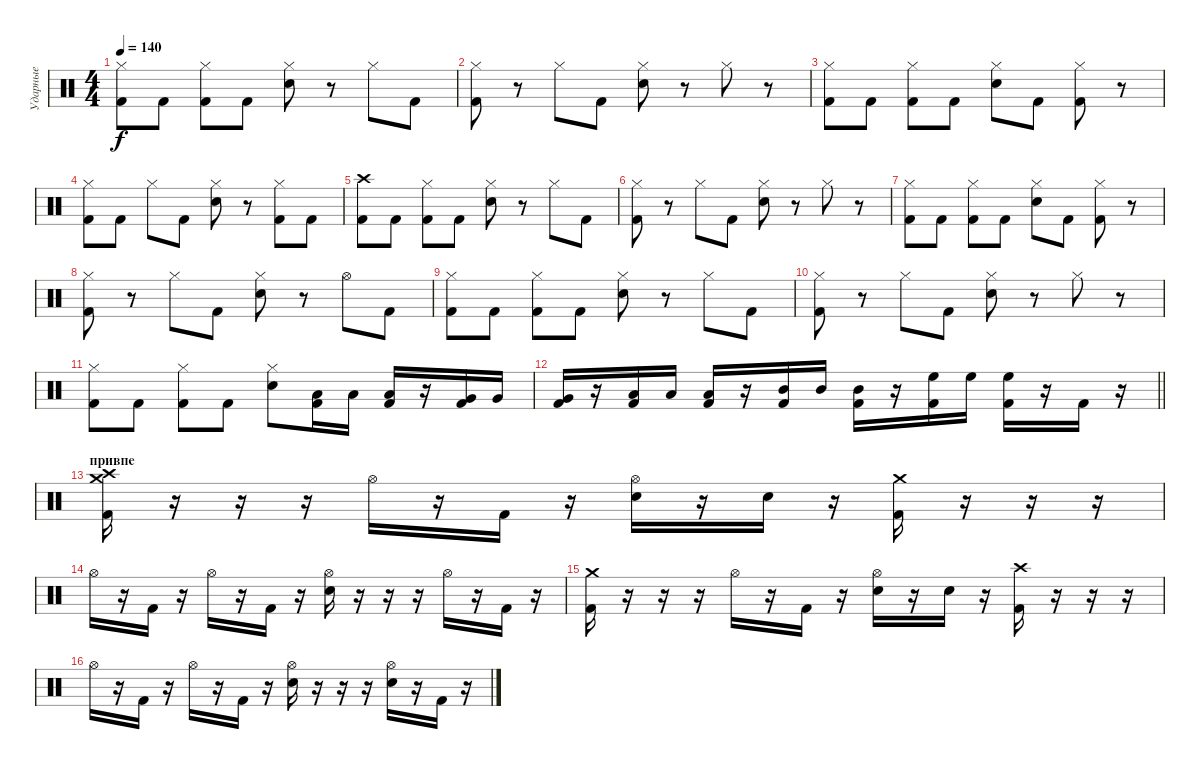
\track ("Ударные" "Ударные") {instrument percussion}
\staff {score}
\articulation defaults
\ts (4 4)
\tempo 140
\clef neutral
\ks c
("Hi-Hat (closed)" "Kick (hit) 2").8{dy f} "Kick (hit) 2".8 ("Hi-Hat (closed)" "Kick (hit) 2").8 "Kick (hit) 2".8 ("Hi-Hat (closed)" "Snare (hit) 2").8 r.8 "Hi-Hat (closed)".8 "Kick (hit) 2".8 |
("Hi-Hat (closed)" "Kick (hit) 2").8 r.8 "Hi-Hat (closed)".8 "Kick (hit) 2".8 ("Hi-Hat (closed)" "Snare (hit) 2").8 r.8 "Hi-Hat (closed)".8 r.8 |
("Hi-Hat (closed)" "Kick (hit) 2").8 "Kick (hit) 2".8 ("Hi-Hat (closed)" "Kick (hit) 2").8 "Kick (hit) 2".8 ("Hi-Hat (closed)" "Snare (hit) 2").8 "Kick (hit) 2".8 ("Hi-Hat (closed)" "Kick (hit) 2").8 r.8 |
("Hi-Hat (closed)" "Kick (hit) 2").8 "Kick (hit) 2".8 "Hi-Hat (closed)".8 "Kick (hit) 2".8 ("Hi-Hat (closed)" "Snare (hit) 2").8 r.8 ("Hi-Hat (closed)" "Kick (hit) 2").8 "Kick (hit) 2".8 |
("Crash high (hit)" "Kick (hit) 2").8 "Kick (hit) 2".8 ("Hi-Hat (closed)" "Kick (hit) 2").8 "Kick (hit) 2".8 ("Hi-Hat (closed)" "Snare (hit) 2").8 r.8 "Hi-Hat (closed)".8 "Kick (hit) 2".8 |
("Hi-Hat (closed)" "Kick (hit) 2").8 r.8 "Hi-Hat (closed)".8 "Kick (hit) 2".8 ("Hi-Hat (closed)" "Snare (hit) 2").8 r.8 "Hi-Hat (closed)".8 r.8 |
("Hi-Hat (closed)" "Kick (hit) 2").8 "Kick (hit) 2".8 ("Hi-Hat (closed)" "Kick (hit) 2").8 "Kick (hit) 2".8 ("Hi-Hat (closed)" "Snare (hit) 2").8 "Kick (hit) 2".8 ("Hi-Hat (closed)" "Kick (hit) 2").8 r.8 |
("Hi-Hat (closed)" "Kick (hit) 2").8 r.8 "Hi-Hat (closed)".8 "Kick (hit) 2".8 ("Hi-Hat (closed)" "Snare (hit) 2").8 r.8 "Hi-Hat (open)".8 "Kick (hit) 2".8 |
("Hi-Hat (closed)" "Kick (hit) 2").8 "Kick (hit) 2".8 ("Hi-Hat (closed)" "Kick (hit) 2").8 "Kick (hit) 2".8 ("Hi-Hat (closed)" "Snare (hit) 2").8 r.8 "Hi-Hat (closed)".8 "Kick (hit) 2".8 |
("Hi-Hat (closed)" "Kick (hit) 2").8 r.8 "Hi-Hat (closed)".8 "Kick (hit) 2".8 ("Hi-Hat (closed)" "Snare (hit) 2").8 r.8 "Hi-Hat (closed)".8 r.8 |
("Hi-Hat (closed)" "Kick (hit) 2").8 "Kick (hit) 2".8 ("Hi-Hat (closed)" "Kick (hit) 2").8 "Kick (hit) 2".8 ("Hi-Hat (closed)" "Snare (hit) 2").8 ("Low Floor Tom (hit)" "Kick (hit) 2").16 "Low Floor Tom (hit)".16 ("Low Floor Tom (hit)" "Kick (hit) 2").16 r.16 ("Very Low Tom (hit)" "Kick (hit) 2").16 "Very Low Tom (hit)".16 |
\barLineRight lightlight
("Very Low Tom (hit)" "Kick (hit) 2").16 r.16 ("Low Tom (hit)" "Kick (hit) 2").16 "Low Tom (hit)".16 ("Low Tom (hit)" "Kick (hit) 2").16 r.16 ("Mid Tom (hit)" "Kick (hit) 2").16 "Mid Tom (hit)".16 ("Mid Tom (hit)" "Kick (hit) 2").16 r.16 ("High Floor Tom (hit)" "Kick (hit) 2").16 "High Floor Tom (hit)".16 ("High Floor Tom (hit)" "Kick (hit) 2").16 r.16 "Kick (hit) 2".16 r.16 |
\section ("" "привпе")
("Crash high (hit)" "Crash medium (hit)" "Kick (hit) 2").16 r.16 r.16 r.16 "Hi-Hat (open)".16 r.16 "Kick (hit) 2".16 r.16 ("Hi-Hat (open)" "Snare (hit) 2").16 r.16 "Snare (hit) 2".16 r.16 ("Crash medium (hit)" "Kick (hit) 2").16 r.16 r.16 r.16 |
"Hi-Hat (open)".16 r.16 "Kick (hit) 2".16 r.16 "Hi-Hat (open)".16 r.16 "Kick (hit) 2".16 r.16 ("Hi-Hat (open)" "Snare (hit) 2").16 r.16 r.16 r.16 "Hi-Hat (open)".16 r.16 "Kick (hit) 2".16 r.16 |
("Crash medium (hit)" "Kick (hit) 2").16 r.16 r.16 r.16 "Hi-Hat (open)".16 r.16 "Kick (hit) 2".16 r.16 ("Hi-Hat (open)" "Snare (hit) 2").16 r.16 "Snare (hit) 2".16 r.16 ("Crash high (hit)" "Kick (hit) 2").16 r.16 r.16 r.16 |
"Hi-Hat (open)".16 r.16 "Kick (hit) 2".16 r.16 "Hi-Hat (open)".16 r.16 "Kick (hit) 2".16 r.16 ("Hi-Hat (open)" "Snare (hit) 2").16 r.16 r.16 r.16 ("Hi-Hat (open)" "Snare (hit) 2").16 r.16 "Kick (hit) 2".16 r.16
